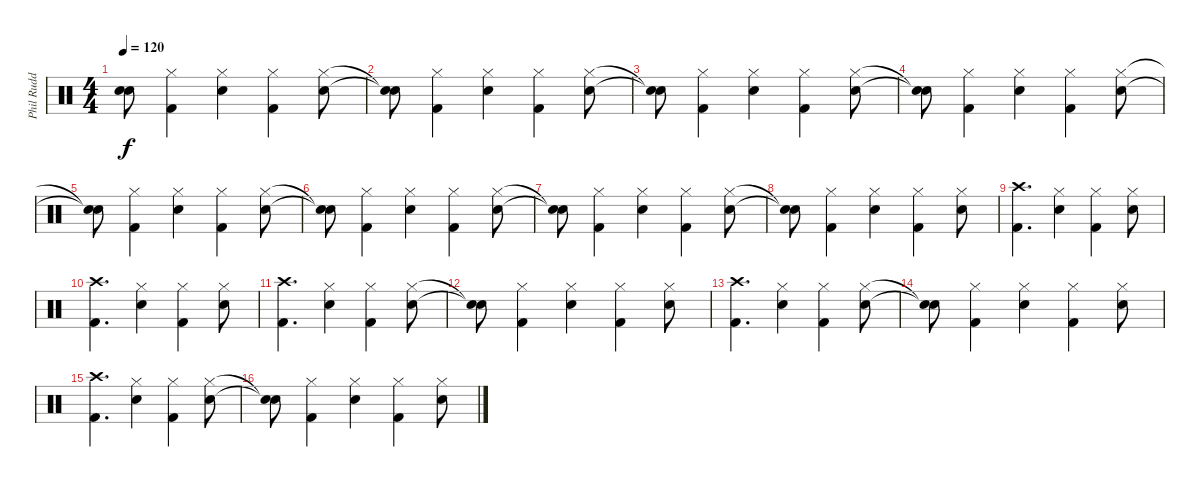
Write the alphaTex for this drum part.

\track ("Phil Rudd - Drums" "Phil Rudd ") {instrument percussion}
\staff {score}
\articulation defaults
\ts (4 4)
\tempo 120
\clef neutral
\ks c
("Snare (hit)"{t} "Snare (hit)"{t}).8{dy f} ("Hi-Hat (closed)" "Kick (hit) 2").4 ("Hi-Hat (closed)" "Snare (hit) 2").4 ("Hi-Hat (closed)" "Kick (hit) 2").4 ("Hi-Hat (closed)" "Snare (hit) 2").8 |
("Snare (hit)"{t} "Snare (hit)"{t}).8 ("Hi-Hat (closed)" "Kick (hit) 2").4 ("Hi-Hat (closed)" "Snare (hit) 2").4 ("Hi-Hat (closed)" "Kick (hit) 2").4 ("Hi-Hat (closed)" "Snare (hit) 2").8 |
("Snare (hit)"{t} "Snare (hit)"{t}).8 ("Hi-Hat (closed)" "Kick (hit) 2").4 ("Hi-Hat (closed)" "Snare (hit) 2").4 ("Hi-Hat (closed)" "Kick (hit) 2").4 ("Hi-Hat (closed)" "Snare (hit) 2").8 |
("Snare (hit)"{t} "Snare (hit)"{t}).8 ("Hi-Hat (closed)" "Kick (hit) 2").4 ("Hi-Hat (closed)" "Snare (hit) 2").4 ("Hi-Hat (closed)" "Kick (hit) 2").4 ("Hi-Hat (closed)" "Snare (hit) 2").8 |
("Snare (hit)"{t} "Snare (hit)"{t}).8 ("Hi-Hat (closed)" "Kick (hit) 2").4 ("Hi-Hat (closed)" "Snare (hit) 2").4 ("Hi-Hat (closed)" "Kick (hit) 2").4 ("Hi-Hat (closed)" "Snare (hit) 2").8 |
("Snare (hit)"{t} "Snare (hit)"{t}).8 ("Hi-Hat (closed)" "Kick (hit) 2").4 ("Hi-Hat (closed)" "Snare (hit) 2").4 ("Hi-Hat (closed)" "Kick (hit) 2").4 ("Hi-Hat (closed)" "Snare (hit) 2").8 |
("Snare (hit)"{t} "Snare (hit)"{t}).8 ("Hi-Hat (closed)" "Kick (hit) 2").4 ("Hi-Hat (closed)" "Snare (hit) 2").4 ("Hi-Hat (closed)" "Kick (hit) 2").4 ("Hi-Hat (closed)" "Snare (hit) 2").8 |
("Snare (hit)"{t} "Snare (hit)"{t}).8 ("Hi-Hat (closed)" "Kick (hit) 2").4 ("Hi-Hat (closed)" "Snare (hit) 2").4 ("Hi-Hat (closed)" "Kick (hit) 2").4 ("Hi-Hat (closed)" "Snare (hit) 2").8 |
("Crash high (hit)" "Kick (hit) 2").4{d} ("Hi-Hat (closed)" "Snare (hit) 2").4 ("Hi-Hat (closed)" "Kick (hit) 2").4 ("Hi-Hat (closed)" "Snare (hit) 2").8 |
("Crash high (hit)" "Kick (hit) 2").4{d} ("Hi-Hat (closed)" "Snare (hit) 2").4 ("Hi-Hat (closed)" "Kick (hit) 2").4 ("Hi-Hat (closed)" "Snare (hit) 2").8 |
("Crash high (hit)" "Kick (hit) 2").4{d} ("Hi-Hat (closed)" "Snare (hit) 2").4 ("Hi-Hat (closed)" "Kick (hit) 2").4 ("Hi-Hat (closed)" "Snare (hit) 2").8 |
("Snare (hit)"{t} "Snare (hit)"{t}).8 ("Hi-Hat (closed)" "Kick (hit) 2").4 ("Hi-Hat (closed)" "Snare (hit) 2").4 ("Hi-Hat (closed)" "Kick (hit) 2").4 ("Hi-Hat (closed)" "Snare (hit) 2").8 |
("Crash high (hit)" "Kick (hit) 2").4{d} ("Hi-Hat (closed)" "Snare (hit) 2").4 ("Hi-Hat (closed)" "Kick (hit) 2").4 ("Hi-Hat (closed)" "Snare (hit) 2").8 |
("Snare (hit)"{t} "Snare (hit)"{t}).8 ("Hi-Hat (closed)" "Kick (hit) 2").4 ("Hi-Hat (closed)" "Snare (hit) 2").4 ("Hi-Hat (closed)" "Kick (hit) 2").4 ("Hi-Hat (closed)" "Snare (hit) 2").8 |
("Crash high (hit)" "Kick (hit) 2").4{d} ("Hi-Hat (closed)" "Snare (hit) 2").4 ("Hi-Hat (closed)" "Kick (hit) 2").4 ("Hi-Hat (closed)" "Snare (hit) 2").8 |
("Snare (hit)"{t} "Snare (hit)"{t}).8 ("Hi-Hat (closed)" "Kick (hit) 2").4 ("Hi-Hat (closed)" "Snare (hit) 2").4 ("Hi-Hat (closed)" "Kick (hit) 2").4 ("Hi-Hat (closed)" "Snare (hit) 2").8
